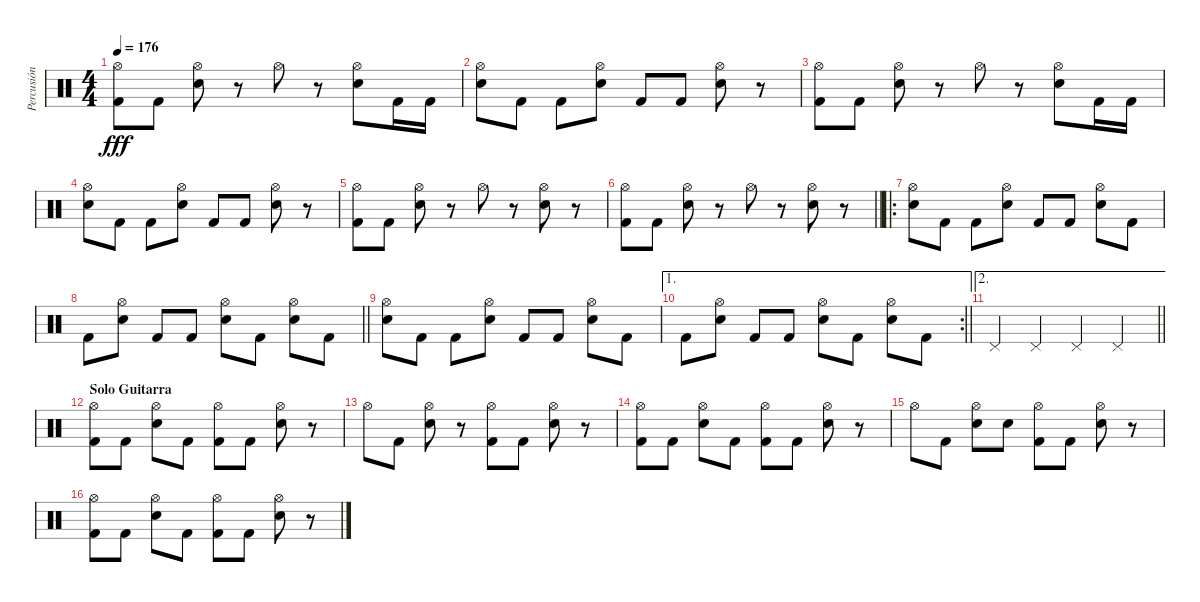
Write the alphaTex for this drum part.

\track ("Percusión" "Percusión") {instrument percussion}
\staff {score}
\articulation defaults
\ts (4 4)
\tempo 176
\clef neutral
\ks c
("Hi-Hat (open)" "Kick (hit) 2").8{dy fff} "Kick (hit) 2".8 ("Hi-Hat (open)" "Electric Snare (hit)").8 r.8 "Hi-Hat (open)".8 r.8 ("Hi-Hat (open)" "Electric Snare (hit)").8 "Kick (hit) 2".16 "Kick (hit) 2".16 |
("Hi-Hat (open)" "Electric Snare (hit)").8 "Kick (hit) 2".8 "Kick (hit) 2".8 ("Hi-Hat (open)" "Electric Snare (hit)").8 "Kick (hit) 2".8 "Kick (hit) 2".8 ("Hi-Hat (open)" "Electric Snare (hit)").8 r.8 |
("Hi-Hat (open)" "Kick (hit) 2").8 "Kick (hit) 2".8 ("Hi-Hat (open)" "Electric Snare (hit)").8 r.8 "Hi-Hat (open)".8 r.8 ("Hi-Hat (open)" "Electric Snare (hit)").8 "Kick (hit) 2".16 "Kick (hit) 2".16 |
("Hi-Hat (open)" "Electric Snare (hit)").8 "Kick (hit) 2".8 "Kick (hit) 2".8 ("Hi-Hat (open)" "Electric Snare (hit)").8 "Kick (hit) 2".8 "Kick (hit) 2".8 ("Hi-Hat (open)" "Electric Snare (hit)").8 r.8 |
("Hi-Hat (open)" "Kick (hit) 2").8 "Kick (hit) 2".8 ("Hi-Hat (open)" "Electric Snare (hit)").8 r.8 "Hi-Hat (open)".8 r.8 ("Hi-Hat (open)" "Electric Snare (hit)").8 r.8 |
\barLineRight lightlight
("Hi-Hat (open)" "Kick (hit) 2").8 "Kick (hit) 2".8 ("Hi-Hat (open)" "Electric Snare (hit)").8 r.8 "Hi-Hat (open)".8 r.8 ("Hi-Hat (open)" "Electric Snare (hit)").8 r.8 |
\ro
("Hi-Hat (open)" "Electric Snare (hit)").8 "Kick (hit) 2".8 "Kick (hit) 2".8 ("Hi-Hat (open)" "Electric Snare (hit)").8 "Kick (hit) 2".8 "Kick (hit) 2".8 ("Hi-Hat (open)" "Electric Snare (hit)").8 "Kick (hit) 2".8 |
\barLineRight lightlight "Kick (hit) 2".8
("Hi-Hat (open)" "Electric Snare (hit)").8 "Kick (hit) 2".8 "Kick (hit) 2".8 ("Hi-Hat (open)" "Electric Snare (hit)").8 "Kick (hit) 2".8 ("Hi-Hat (open)" "Electric Snare (hit)").8 "Kick (hit) 2".8 |
("Hi-Hat (open)" "Electric Snare (hit)").8 "Kick (hit) 2".8 "Kick (hit) 2".8 ("Hi-Hat (open)" "Electric Snare (hit)").8 "Kick (hit) 2".8 "Kick (hit) 2".8 ("Hi-Hat (open)" "Electric Snare (hit)").8 "Kick (hit) 2".8 |
\ae 1
\rc 2
\barLineRight lightlight "Kick (hit) 2".8
("Hi-Hat (open)" "Electric Snare (hit)").8 "Kick (hit) 2".8 "Kick (hit) 2".8 ("Hi-Hat (open)" "Electric Snare (hit)").8 "Kick (hit) 2".8 ("Hi-Hat (open)" "Electric Snare (hit)").8 "Kick (hit) 2".8 |
\ae 2
\barLineRight lightlight "Pedal Hi-Hat (hit)".4 "Pedal Hi-Hat (hit)".4 "Pedal Hi-Hat (hit)".4 "Pedal Hi-Hat (hit)".4
|
\section ("" "Solo Guitarra")
("Hi-Hat (open)" "Kick (hit) 2").8 "Kick (hit) 2".8 ("Hi-Hat (open)" "Electric Snare (hit)").8 "Kick (hit) 2".8 ("Hi-Hat (open)" "Kick (hit) 2").8 "Kick (hit) 2".8 ("Hi-Hat (open)" "Electric Snare (hit)").8 r.8 |
"Hi-Hat (open)".8 "Kick (hit) 2".8 ("Hi-Hat (open)" "Electric Snare (hit)").8 r.8 ("Hi-Hat (open)" "Kick (hit) 2").8 "Kick (hit) 2".8 ("Hi-Hat (open)" "Electric Snare (hit)").8 r.8 |
("Hi-Hat (open)" "Kick (hit) 2").8 "Kick (hit) 2".8 ("Hi-Hat (open)" "Electric Snare (hit)").8 "Kick (hit) 2".8 ("Hi-Hat (open)" "Kick (hit) 2").8 "Kick (hit) 2".8 ("Hi-Hat (open)" "Electric Snare (hit)").8 r.8 |
"Hi-Hat (open)".8 "Kick (hit) 2".8 ("Hi-Hat (open)" "Electric Snare (hit)").8 "Snare (hit)".8 ("Hi-Hat (open)" "Kick (hit) 2").8 "Kick (hit) 2".8 ("Hi-Hat (open)" "Electric Snare (hit)").8 r.8 |
("Hi-Hat (open)" "Kick (hit) 2").8 "Kick (hit) 2".8 ("Hi-Hat (open)" "Electric Snare (hit)").8 "Kick (hit) 2".8 ("Hi-Hat (open)" "Kick (hit) 2").8 "Kick (hit) 2".8 ("Hi-Hat (open)" "Electric Snare (hit)").8 r.8
